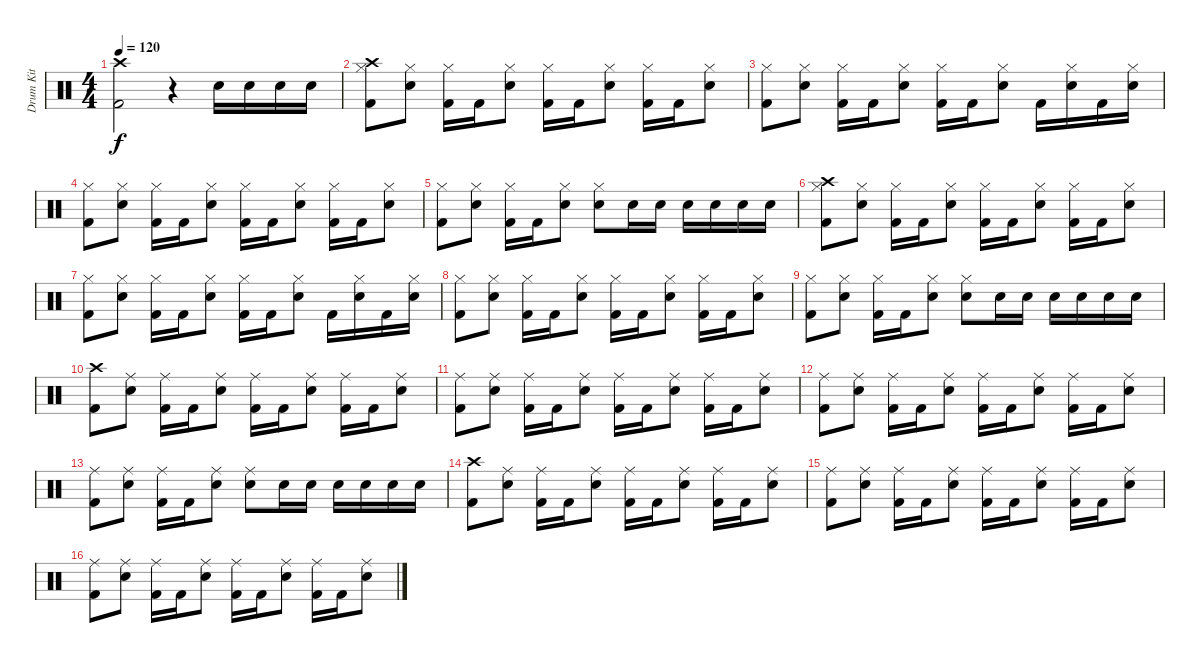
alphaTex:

\track ("Drum Kit" "Drum Kit") {instrument percussion}
\staff {score}
\articulation defaults
\ts (4 4)
\tempo 120
\clef neutral
\ks c
("Crash high (hit)" "Kick (hit) 2").2{dy f} r.4 "Snare (hit) 2".16 "Snare (hit) 2".16 "Snare (hit) 2".16 "Snare (hit) 2".16 |
("Crash high (hit)" "Hi-Hat (closed)" "Kick (hit) 2").8 ("Hi-Hat (closed)" "Snare (hit) 2").8 ("Hi-Hat (closed)" "Kick (hit) 2").16 "Kick (hit) 2".16 ("Hi-Hat (closed)" "Snare (hit) 2").8 ("Hi-Hat (closed)" "Kick (hit) 2").16 "Kick (hit) 2".16 ("Hi-Hat (closed)" "Snare (hit) 2").8 ("Hi-Hat (closed)" "Kick (hit) 2").16 "Kick (hit) 2".16 ("Hi-Hat (closed)" "Snare (hit) 2").8 |
("Hi-Hat (closed)" "Kick (hit) 2").8 ("Hi-Hat (closed)" "Snare (hit) 2").8 ("Hi-Hat (closed)" "Kick (hit) 2").16 "Kick (hit) 2".16 ("Hi-Hat (closed)" "Snare (hit) 2").8 ("Hi-Hat (closed)" "Kick (hit) 2").16 "Kick (hit) 2".16 ("Hi-Hat (closed)" "Snare (hit) 2").8 "Kick (hit) 2".16 ("Hi-Hat (closed)" "Snare (hit) 2").16 "Kick (hit) 2".16 ("Hi-Hat (closed)" "Snare (hit) 2").16 |
("Hi-Hat (closed)" "Kick (hit) 2").8 ("Hi-Hat (closed)" "Snare (hit) 2").8 ("Hi-Hat (closed)" "Kick (hit) 2").16 "Kick (hit) 2".16 ("Hi-Hat (closed)" "Snare (hit) 2").8 ("Hi-Hat (closed)" "Kick (hit) 2").16 "Kick (hit) 2".16 ("Hi-Hat (closed)" "Snare (hit) 2").8 ("Hi-Hat (closed)" "Kick (hit) 2").16 "Kick (hit) 2".16 ("Hi-Hat (closed)" "Snare (hit) 2").8 |
("Hi-Hat (closed)" "Kick (hit) 2").8 ("Hi-Hat (closed)" "Snare (hit) 2").8 ("Hi-Hat (closed)" "Kick (hit) 2").16 "Kick (hit) 2".16 ("Hi-Hat (closed)" "Snare (hit) 2").8 ("Hi-Hat (closed)" "Snare (hit) 2").8 "Snare (hit) 2".16 "Snare (hit) 2".16 "Snare (hit) 2".16 "Snare (hit) 2".16 "Snare (hit) 2".16 "Snare (hit) 2".16 |
("Crash high (hit)" "Hi-Hat (closed)" "Kick (hit) 2").8 ("Hi-Hat (closed)" "Snare (hit) 2").8 ("Hi-Hat (closed)" "Kick (hit) 2").16 "Kick (hit) 2".16 ("Hi-Hat (closed)" "Snare (hit) 2").8 ("Hi-Hat (closed)" "Kick (hit) 2").16 "Kick (hit) 2".16 ("Hi-Hat (closed)" "Snare (hit) 2").8 ("Hi-Hat (closed)" "Kick (hit) 2").16 "Kick (hit) 2".16 ("Hi-Hat (closed)" "Snare (hit) 2").8 |
("Hi-Hat (closed)" "Kick (hit) 2").8 ("Hi-Hat (closed)" "Snare (hit) 2").8 ("Hi-Hat (closed)" "Kick (hit) 2").16 "Kick (hit) 2".16 ("Hi-Hat (closed)" "Snare (hit) 2").8 ("Hi-Hat (closed)" "Kick (hit) 2").16 "Kick (hit) 2".16 ("Hi-Hat (closed)" "Snare (hit) 2").8 "Kick (hit) 2".16 ("Hi-Hat (closed)" "Snare (hit) 2").16 "Kick (hit) 2".16 ("Hi-Hat (closed)" "Snare (hit) 2").16 |
("Hi-Hat (closed)" "Kick (hit) 2").8 ("Hi-Hat (closed)" "Snare (hit) 2").8 ("Hi-Hat (closed)" "Kick (hit) 2").16 "Kick (hit) 2".16 ("Hi-Hat (closed)" "Snare (hit) 2").8 ("Hi-Hat (closed)" "Kick (hit) 2").16 "Kick (hit) 2".16 ("Hi-Hat (closed)" "Snare (hit) 2").8 ("Hi-Hat (closed)" "Kick (hit) 2").16 "Kick (hit) 2".16 ("Hi-Hat (closed)" "Snare (hit) 2").8 |
("Hi-Hat (closed)" "Kick (hit) 2").8 ("Hi-Hat (closed)" "Snare (hit) 2").8 ("Hi-Hat (closed)" "Kick (hit) 2").16 "Kick (hit) 2".16 ("Hi-Hat (closed)" "Snare (hit) 2").8 ("Hi-Hat (closed)" "Snare (hit) 2").8 "Snare (hit) 2".16 "Snare (hit) 2".16 "Snare (hit) 2".16 "Snare (hit) 2".16 "Snare (hit) 2".16 "Snare (hit) 2".16 |
("Crash high (hit)" "Kick (hit) 2").8 ("Ride (middle)" "Snare (hit) 2").8 ("Ride (middle)" "Kick (hit) 2").16 "Kick (hit) 2".16 ("Ride (middle)" "Snare (hit) 2").8 ("Ride (middle)" "Kick (hit) 2").16 "Kick (hit) 2".16 ("Ride (middle)" "Snare (hit) 2").8 ("Ride (middle)" "Kick (hit) 2").16 "Kick (hit) 2".16 ("Ride (middle)" "Snare (hit) 2").8 |
("Ride (middle)" "Kick (hit) 2").8 ("Ride (middle)" "Snare (hit) 2").8 ("Ride (middle)" "Kick (hit) 2").16 "Kick (hit) 2".16 ("Ride (middle)" "Snare (hit) 2").8 ("Ride (middle)" "Kick (hit) 2").16 "Kick (hit) 2".16 ("Ride (middle)" "Snare (hit) 2").8 ("Ride (middle)" "Kick (hit) 2").16 "Kick (hit) 2".16 ("Ride (middle)" "Snare (hit) 2").8 |
("Ride (middle)" "Kick (hit) 2").8 ("Ride (middle)" "Snare (hit) 2").8 ("Ride (middle)" "Kick (hit) 2").16 "Kick (hit) 2".16 ("Ride (middle)" "Snare (hit) 2").8 ("Ride (middle)" "Kick (hit) 2").16 "Kick (hit) 2".16 ("Ride (middle)" "Snare (hit) 2").8 ("Ride (middle)" "Kick (hit) 2").16 "Kick (hit) 2".16 ("Ride (middle)" "Snare (hit) 2").8 |
("Ride (middle)" "Kick (hit) 2").8 ("Ride (middle)" "Snare (hit) 2").8 ("Ride (middle)" "Kick (hit) 2").16 "Kick (hit) 2".16 ("Ride (middle)" "Snare (hit) 2").8 ("Ride (middle)" "Snare (hit) 2").8 "Snare (hit) 2".16 "Snare (hit) 2".16 "Snare (hit) 2".16 "Snare (hit) 2".16 "Snare (hit) 2".16 "Snare (hit) 2".16 |
("Crash high (hit)" "Kick (hit) 2").8 ("Ride (middle)" "Snare (hit) 2").8 ("Ride (middle)" "Kick (hit) 2").16 "Kick (hit) 2".16 ("Ride (middle)" "Snare (hit) 2").8 ("Ride (middle)" "Kick (hit) 2").16 "Kick (hit) 2".16 ("Ride (middle)" "Snare (hit) 2").8 ("Ride (middle)" "Kick (hit) 2").16 "Kick (hit) 2".16 ("Ride (middle)" "Snare (hit) 2").8 |
("Ride (middle)" "Kick (hit) 2").8 ("Ride (middle)" "Snare (hit) 2").8 ("Ride (middle)" "Kick (hit) 2").16 "Kick (hit) 2".16 ("Ride (middle)" "Snare (hit) 2").8 ("Ride (middle)" "Kick (hit) 2").16 "Kick (hit) 2".16 ("Ride (middle)" "Snare (hit) 2").8 ("Ride (middle)" "Kick (hit) 2").16 "Kick (hit) 2".16 ("Ride (middle)" "Snare (hit) 2").8 |
("Ride (middle)" "Kick (hit) 2").8 ("Ride (middle)" "Snare (hit) 2").8 ("Ride (middle)" "Kick (hit) 2").16 "Kick (hit) 2".16 ("Ride (middle)" "Snare (hit) 2").8 ("Ride (middle)" "Kick (hit) 2").16 "Kick (hit) 2".16 ("Ride (middle)" "Snare (hit) 2").8 ("Ride (middle)" "Kick (hit) 2").16 "Kick (hit) 2".16 ("Ride (middle)" "Snare (hit) 2").8
